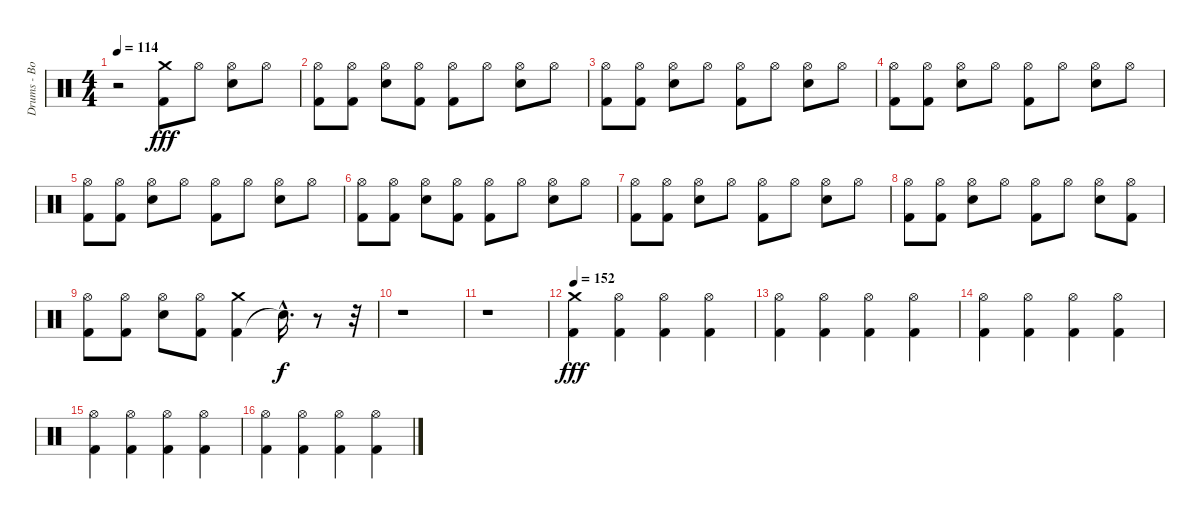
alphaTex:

\track ("Drums - Bobby Schayer" "Drums - Bo") {instrument percussion}
\staff {score}
\articulation defaults
\ts (4 4)
\tempo 114
\clef neutral
\ks c
r.2{dy fff} ("Kick (hit) 2" "Crash medium (hit)").8 "Hi-Hat (open)".8 ("Electric Snare (hit)" "Hi-Hat (open)").8 "Hi-Hat (open)".8 |
("Kick (hit) 2" "Hi-Hat (open)").8 ("Kick (hit) 2" "Hi-Hat (open)").8 ("Electric Snare (hit)" "Hi-Hat (open)").8 ("Kick (hit) 2" "Hi-Hat (open)").8 ("Kick (hit) 2" "Hi-Hat (open)").8 "Hi-Hat (open)".8 ("Electric Snare (hit)" "Hi-Hat (open)").8 "Hi-Hat (open)".8 |
("Kick (hit) 2" "Hi-Hat (open)").8 ("Kick (hit) 2" "Hi-Hat (open)").8 ("Electric Snare (hit)" "Hi-Hat (open)").8 "Hi-Hat (open)".8 ("Kick (hit) 2" "Hi-Hat (open)").8 "Hi-Hat (open)".8 ("Electric Snare (hit)" "Hi-Hat (open)").8 "Hi-Hat (open)".8 |
("Kick (hit) 2" "Hi-Hat (open)").8 ("Kick (hit) 2" "Hi-Hat (open)").8 ("Electric Snare (hit)" "Hi-Hat (open)").8 "Hi-Hat (open)".8 ("Kick (hit) 2" "Hi-Hat (open)").8 "Hi-Hat (open)".8 ("Electric Snare (hit)" "Hi-Hat (open)").8 "Hi-Hat (open)".8 |
("Kick (hit) 2" "Hi-Hat (open)").8 ("Kick (hit) 2" "Hi-Hat (open)").8 ("Electric Snare (hit)" "Hi-Hat (open)").8 "Hi-Hat (open)".8 ("Kick (hit) 2" "Hi-Hat (open)").8 "Hi-Hat (open)".8 ("Electric Snare (hit)" "Hi-Hat (open)").8 "Hi-Hat (open)".8 |
("Kick (hit) 2" "Hi-Hat (open)").8 ("Kick (hit) 2" "Hi-Hat (open)").8 ("Electric Snare (hit)" "Hi-Hat (open)").8 ("Hi-Hat (open)" "Kick (hit) 2").8 ("Kick (hit) 2" "Hi-Hat (open)").8 "Hi-Hat (open)".8 ("Electric Snare (hit)" "Hi-Hat (open)").8 "Hi-Hat (open)".8 |
("Kick (hit) 2" "Hi-Hat (open)").8 ("Kick (hit) 2" "Hi-Hat (open)").8 ("Electric Snare (hit)" "Hi-Hat (open)").8 "Hi-Hat (open)".8 ("Kick (hit) 2" "Hi-Hat (open)").8 "Hi-Hat (open)".8 ("Electric Snare (hit)" "Hi-Hat (open)").8 "Hi-Hat (open)".8 |
("Kick (hit) 2" "Hi-Hat (open)").8 ("Kick (hit) 2" "Hi-Hat (open)").8 ("Electric Snare (hit)" "Hi-Hat (open)").8 "Hi-Hat (open)".8 ("Kick (hit) 2" "Hi-Hat (open)").8 "Hi-Hat (open)".8 ("Electric Snare (hit)" "Hi-Hat (open)").8 ("Hi-Hat (open)" "Kick (hit) 2").8 |
("Kick (hit) 2" "Hi-Hat (open)").8 ("Kick (hit) 2" "Hi-Hat (open)").8 ("Electric Snare (hit)" "Hi-Hat (open)").8 ("Hi-Hat (open)" "Kick (hit) 2").8 ("Kick (hit) 2" "Crash medium (hit)").4 "Snare (hit)"{hac t}.16{d dy f} r.8 r.32 |
r.1 |
r.1 |
\tempo 152
("Kick (hit) 2" "Crash medium (hit)").4{dy fff} ("Hi-Hat (open)" "Kick (hit) 2").4 ("Hi-Hat (open)" "Kick (hit) 2").4 ("Hi-Hat (open)" "Kick (hit) 2").4 |
("Hi-Hat (open)" "Kick (hit) 2").4 ("Hi-Hat (open)" "Kick (hit) 2").4 ("Hi-Hat (open)" "Kick (hit) 2").4 ("Hi-Hat (open)" "Kick (hit) 2").4 |
("Hi-Hat (open)" "Kick (hit) 2").4 ("Hi-Hat (open)" "Kick (hit) 2").4 ("Hi-Hat (open)" "Kick (hit) 2").4 ("Hi-Hat (open)" "Kick (hit) 2").4 |
("Hi-Hat (open)" "Kick (hit) 2").4 ("Hi-Hat (open)" "Kick (hit) 2").4 ("Hi-Hat (open)" "Kick (hit) 2").4 ("Hi-Hat (open)" "Kick (hit) 2").4 |
("Hi-Hat (open)" "Kick (hit) 2").4 ("Hi-Hat (open)" "Kick (hit) 2").4 ("Hi-Hat (open)" "Kick (hit) 2").4 ("Hi-Hat (open)" "Kick (hit) 2").4
